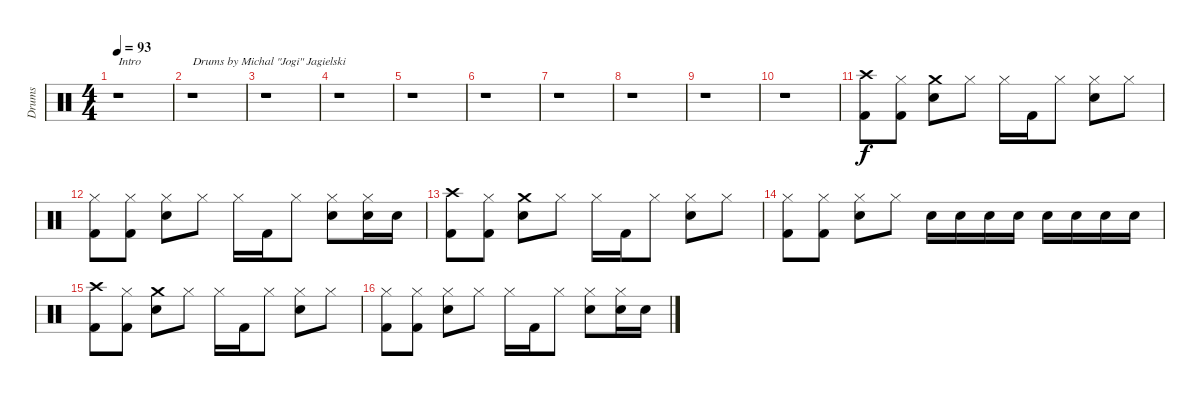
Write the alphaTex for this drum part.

\track ("Drums" "Drums") {instrument percussion}
\staff {score}
\articulation defaults
\ts (4 4)
\tempo 93
\clef neutral
\ks c
r.1{txt "Intro" dy f} |
r.1{txt "Drums by Michal \"Jogi\" Jagielski"} |
r.1 |
r.1 |
r.1 |
r.1 |
r.1 |
r.1 |
r.1 |
r.1 |
("Crash high (hit)" "Kick (hit) 2").8 ("Hi-Hat (closed)" "Kick (hit) 2").8 ("Crash medium (hit)" "Electric Snare (hit)").8 "Hi-Hat (closed)".8 "Hi-Hat (closed)".16 "Kick (hit) 2".16 "Hi-Hat (closed)".8 ("Hi-Hat (closed)" "Electric Snare (hit)").8 "Hi-Hat (closed)".8 |
("Hi-Hat (closed)" "Kick (hit) 2").8 ("Hi-Hat (closed)" "Kick (hit) 2").8 ("Hi-Hat (closed)" "Electric Snare (hit)").8 "Hi-Hat (closed)".8 "Hi-Hat (closed)".16 "Kick (hit) 2".16 "Hi-Hat (closed)".8 ("Hi-Hat (closed)" "Electric Snare (hit)").8 ("Hi-Hat (closed)" "Electric Snare (hit)").16 "Electric Snare (hit)".16 |
("Crash high (hit)" "Kick (hit) 2").8 ("Hi-Hat (closed)" "Kick (hit) 2").8 ("Crash medium (hit)" "Electric Snare (hit)").8 "Hi-Hat (closed)".8 "Hi-Hat (closed)".16 "Kick (hit) 2".16 "Hi-Hat (closed)".8 ("Hi-Hat (closed)" "Electric Snare (hit)").8 "Hi-Hat (closed)".8 |
("Hi-Hat (closed)" "Kick (hit) 2").8 ("Hi-Hat (closed)" "Kick (hit) 2").8 ("Hi-Hat (closed)" "Electric Snare (hit)").8 "Hi-Hat (closed)".8 "Electric Snare (hit)".16 "Electric Snare (hit)".16 "Electric Snare (hit)".16 "Electric Snare (hit)".16 "Electric Snare (hit)".16 "Electric Snare (hit)".16 "Electric Snare (hit)".16 "Electric Snare (hit)".16 |
("Crash high (hit)" "Kick (hit) 2").8 ("Hi-Hat (closed)" "Kick (hit) 2").8 ("Crash medium (hit)" "Electric Snare (hit)").8 "Hi-Hat (closed)".8 "Hi-Hat (closed)".16 "Kick (hit) 2".16 "Hi-Hat (closed)".8 ("Hi-Hat (closed)" "Electric Snare (hit)").8 "Hi-Hat (closed)".8 |
("Hi-Hat (closed)" "Kick (hit) 2").8 ("Hi-Hat (closed)" "Kick (hit) 2").8 ("Hi-Hat (closed)" "Electric Snare (hit)").8 "Hi-Hat (closed)".8 "Hi-Hat (closed)".16 "Kick (hit) 2".16 "Hi-Hat (closed)".8 ("Hi-Hat (closed)" "Electric Snare (hit)").8 ("Hi-Hat (closed)" "Electric Snare (hit)").16 "Electric Snare (hit)".16
